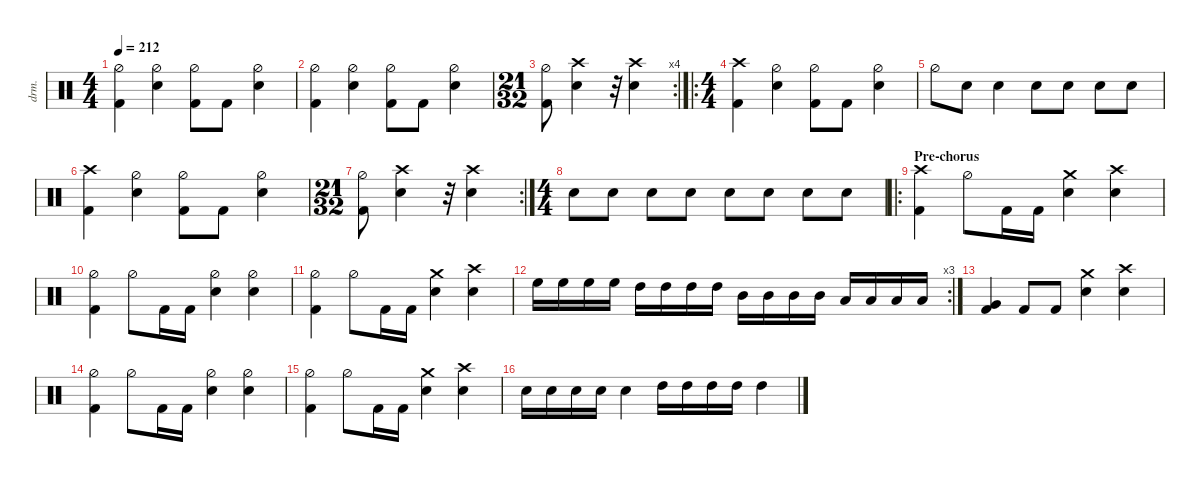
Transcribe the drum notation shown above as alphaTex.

\defaultSystemsLayout 4
\hideDynamics
\bracketExtendMode nobrackets
\track ("Drums" "drm.") {instrument percussion}
\staff {score}
\articulation defaults
\ts (4 4)
\tempo 212
\clef neutral
\ks c
("Kick (hit) 2" "Hi-Hat (half)").4{dy f} ("Hi-Hat (half)" "Snare (hit) 2").4 ("Hi-Hat (half)" "Kick (hit) 2").8 "Kick (hit) 2".8 ("Hi-Hat (half)" "Snare (hit) 2").4 |
("Kick (hit) 2" "Hi-Hat (half)").4 ("Hi-Hat (half)" "Snare (hit) 2").4 ("Hi-Hat (half)" "Kick (hit) 2").8 "Kick (hit) 2".8 ("Hi-Hat (half)" "Snare (hit) 2").4 |
\rc 4
\ts (21 32)
\beaming (8 2 2 2 2)
("Kick (hit) 2" "Hi-Hat (half)").8 ("Snare (hit) 2" "Crash high (hit)").4 r.32 ("Snare (hit) 2" "Crash high (hit)").4 |
\ro
\ts (4 4)
\beaming (8 2 2 2 2)
("Crash high (hit)" "Kick (hit) 2").4 ("Hi-Hat (half)" "Snare (hit) 2").4 ("Hi-Hat (half)" "Kick (hit) 2").8 "Kick (hit) 2".8 ("Hi-Hat (half)" "Snare (hit) 2").4 |
"Hi-Hat (half)".8 "Snare (hit) 2".8 "Snare (hit) 2".4 "Snare (hit) 2".8 "Snare (hit) 2".8 "Snare (hit) 2".8 "Snare (hit) 2".8 |
("Crash high (hit)" "Kick (hit) 2").4 ("Hi-Hat (half)" "Snare (hit) 2").4 ("Hi-Hat (half)" "Kick (hit) 2").8 "Kick (hit) 2".8 ("Hi-Hat (half)" "Snare (hit) 2").4 |
\rc 2
\ts (21 32)
\beaming (8 2 2 2 2)
("Kick (hit) 2" "Hi-Hat (half)").8 ("Snare (hit) 2" "Crash high (hit)").4 r.32 ("Snare (hit) 2" "Crash high (hit)").4 |
\ts (4 4)
\beaming (8 2 2 2 2)
"Snare (hit) 2".8 "Snare (hit) 2".8 "Snare (hit) 2".8 "Snare (hit) 2".8 "Snare (hit) 2".8 "Snare (hit) 2".8 "Snare (hit) 2".8 "Snare (hit) 2".8 |
\ro
\section ("" "Pre-chorus")
("Crash high (hit)" "Kick (hit) 2").4 "Hi-Hat (half)".8 "Kick (hit) 2".16 "Kick (hit) 2".16 ("Snare (hit) 2" "Crash medium (hit)").4 ("Snare (hit) 2" "Crash high (hit)").4 |
("Hi-Hat (half)" "Kick (hit) 2").4 "Hi-Hat (half)".8 "Kick (hit) 2".16 "Kick (hit) 2".16 ("Snare (hit) 2" "Hi-Hat (half)").4 ("Snare (hit) 2" "Hi-Hat (half)").4 |
("Hi-Hat (half)" "Kick (hit) 2").4 "Hi-Hat (half)".8 "Kick (hit) 2".16 "Kick (hit) 2".16 ("Snare (hit) 2" "Crash medium (hit)").4 ("Snare (hit) 2" "Crash high (hit)").4 |
\rc 3 "High Floor Tom (hit)".16{dy fff} "High Floor Tom (hit)".16 "High Floor Tom (hit)".16 "High Floor Tom (hit)".16 "High Tom (hit)".16 "High Tom (hit)".16 "High Tom (hit)".16 "High Tom (hit)".16 "Mid Tom (hit)".16 "Mid Tom (hit)".16 "Mid Tom (hit)".16 "Mid Tom (hit)".16 "Low Tom (hit)".16 "Low Tom (hit)".16 "Low Tom (hit)".16 "Low Tom (hit)".16
|
("Kick (hit) 2" "Very Low Tom (hit)").4{dy f} "Kick (hit) 2".8 "Kick (hit) 2".8 ("Snare (hit) 2" "Crash medium (hit)").4 ("Snare (hit) 2" "Crash high (hit)").4 |
("Hi-Hat (half)" "Kick (hit) 2").4 "Hi-Hat (half)".8 "Kick (hit) 2".16 "Kick (hit) 2".16 ("Snare (hit) 2" "Hi-Hat (half)").4 ("Snare (hit) 2" "Hi-Hat (half)").4 |
("Hi-Hat (half)" "Kick (hit) 2").4 "Hi-Hat (half)".8 "Kick (hit) 2".16 "Kick (hit) 2".16 ("Snare (hit) 2" "Crash medium (hit)").4 ("Snare (hit) 2" "Crash high (hit)").4 |
"Snare (hit) 2".16 "Snare (hit) 2".16{dy mf} "Snare (hit) 2".16 "Snare (hit) 2".16 "Snare (hit) 2".4{dy f} "High Tom (hit)".16{dy ff} "High Tom (hit)".16 "High Tom (hit)".16 "High Tom (hit)".16 "High Tom (hit)".4
